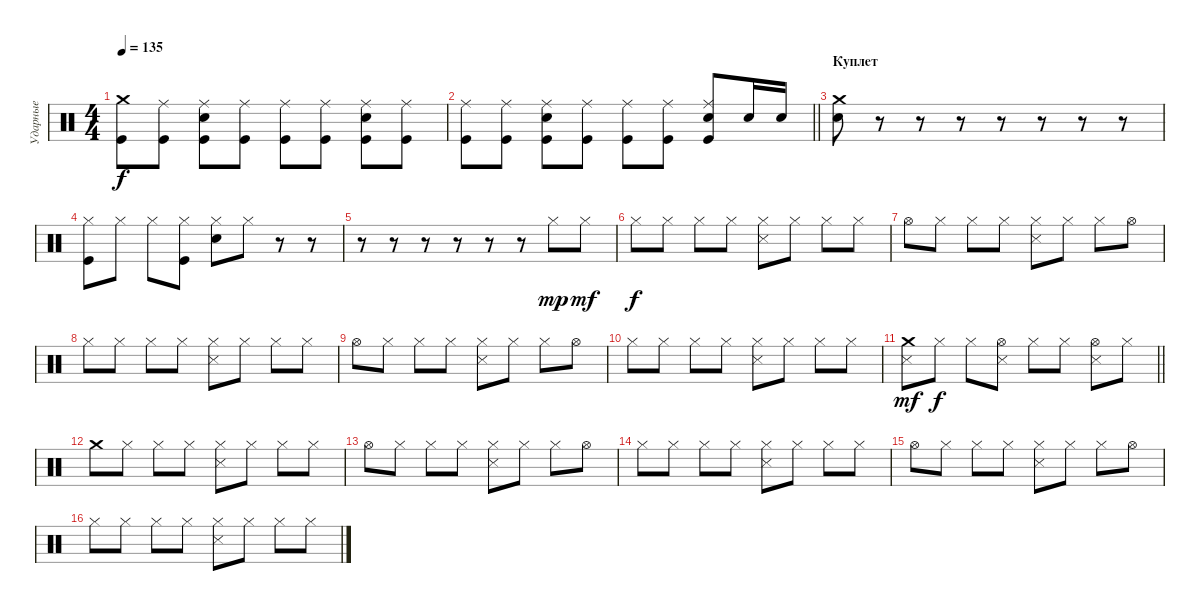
\track ("Ударные" "Ударные") {instrument percussion}
\staff {score}
\articulation defaults
\ts (4 4)
\tempo 135
\clef neutral
\ks c
("Crash medium (hit)" "Kick (hit)").8{dy f} ("Ride (middle)" "Kick (hit)").8 ("Ride (middle)" "Electric Snare (hit)" "Kick (hit)").8 ("Ride (middle)" "Kick (hit)").8 ("Ride (middle)" "Kick (hit)").8 ("Ride (middle)" "Kick (hit)").8 ("Ride (middle)" "Electric Snare (hit)" "Kick (hit)").8 ("Ride (middle)" "Kick (hit)").8 |
\barLineRight lightlight
("Ride (middle)" "Kick (hit)").8 ("Ride (middle)" "Kick (hit)").8 ("Ride (middle)" "Electric Snare (hit)" "Kick (hit)").8 ("Ride (middle)" "Kick (hit)").8 ("Ride (middle)" "Kick (hit)").8 ("Ride (middle)" "Kick (hit)").8 ("Ride (middle)" "Electric Snare (hit)" "Kick (hit)").8 "Electric Snare (hit)".16 "Electric Snare (hit)".16 |
\section ("" "Куплет")
("Crash medium (hit)" "Electric Snare (hit)").8 r.8 r.8 r.8 r.8 r.8 r.8 r.8 |
("Hi-Hat (closed)" "Kick (hit)").8 "Hi-Hat (closed)".8 "Hi-Hat (closed)".8 ("Hi-Hat (closed)" "Kick (hit)").8 ("Hi-Hat (closed)" "Electric Snare (hit)").8 "Hi-Hat (closed)".8 r.8 r.8 |
r.8 r.8 r.8 r.8 r.8 r.8 "Hi-Hat (closed)".8{dy mp} "Hi-Hat (closed)".8{dy mf} |
"Hi-Hat (closed)".8{dy f} "Hi-Hat (closed)".8 "Hi-Hat (closed)".8 "Hi-Hat (closed)".8 ("Hi-Hat (closed)" "Snare (side stick) 3").8 "Hi-Hat (closed)".8 "Hi-Hat (closed)".8 "Hi-Hat (closed)".8 |
"Hi-Hat (open)".8 "Hi-Hat (closed)".8 "Hi-Hat (closed)".8 "Hi-Hat (closed)".8 ("Hi-Hat (closed)" "Snare (side stick) 3").8 "Hi-Hat (closed)".8 "Hi-Hat (closed)".8 "Hi-Hat (open)".8 |
"Hi-Hat (closed)".8 "Hi-Hat (closed)".8 "Hi-Hat (closed)".8 "Hi-Hat (closed)".8 ("Hi-Hat (closed)" "Snare (side stick) 3").8 "Hi-Hat (closed)".8 "Hi-Hat (closed)".8 "Hi-Hat (closed)".8 |
"Hi-Hat (open)".8 "Hi-Hat (closed)".8 "Hi-Hat (closed)".8 "Hi-Hat (closed)".8 ("Hi-Hat (closed)" "Snare (side stick) 3").8 "Hi-Hat (closed)".8 "Hi-Hat (closed)".8 "Hi-Hat (open)".8 |
"Hi-Hat (closed)".8 "Hi-Hat (closed)".8 "Hi-Hat (closed)".8 "Hi-Hat (closed)".8 ("Hi-Hat (closed)" "Snare (side stick) 3").8 "Hi-Hat (closed)".8 "Hi-Hat (closed)".8 "Hi-Hat (closed)".8 |
\barLineRight lightlight
("Crash medium (hit)" "Snare (side stick) 3").8{dy mf} "Hi-Hat (closed)".8{dy f} "Hi-Hat (closed)".8 ("Hi-Hat (open)" "Snare (side stick) 3").8 "Hi-Hat (closed)".8 "Hi-Hat (closed)".8 ("Hi-Hat (open)" "Snare (side stick) 3").8 "Hi-Hat (closed)".8 |
\section ("" " ")
"Crash medium (hit)".8 "Hi-Hat (closed)".8 "Hi-Hat (closed)".8 "Hi-Hat (closed)".8 ("Hi-Hat (closed)" "Snare (side stick) 3").8 "Hi-Hat (closed)".8 "Hi-Hat (closed)".8 "Hi-Hat (closed)".8 |
"Hi-Hat (open)".8 "Hi-Hat (closed)".8 "Hi-Hat (closed)".8 "Hi-Hat (closed)".8 ("Hi-Hat (closed)" "Snare (side stick) 3").8 "Hi-Hat (closed)".8 "Hi-Hat (closed)".8 "Hi-Hat (open)".8 |
"Hi-Hat (closed)".8 "Hi-Hat (closed)".8 "Hi-Hat (closed)".8 "Hi-Hat (closed)".8 ("Hi-Hat (closed)" "Snare (side stick) 3").8 "Hi-Hat (closed)".8 "Hi-Hat (closed)".8 "Hi-Hat (closed)".8 |
"Hi-Hat (open)".8 "Hi-Hat (closed)".8 "Hi-Hat (closed)".8 "Hi-Hat (closed)".8 ("Hi-Hat (closed)" "Snare (side stick) 3").8 "Hi-Hat (closed)".8 "Hi-Hat (closed)".8 "Hi-Hat (open)".8 |
"Hi-Hat (closed)".8 "Hi-Hat (closed)".8 "Hi-Hat (closed)".8 "Hi-Hat (closed)".8 ("Hi-Hat (closed)" "Snare (side stick) 3").8 "Hi-Hat (closed)".8 "Hi-Hat (closed)".8 "Hi-Hat (closed)".8
